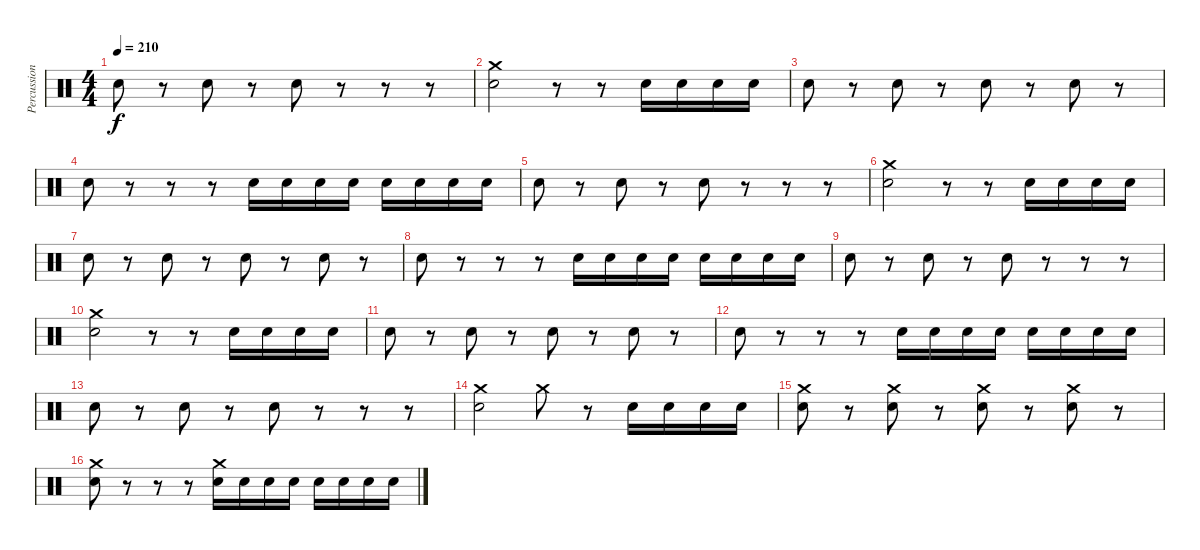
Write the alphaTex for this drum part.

\track ("Percussion" "Percussion") {instrument percussion}
\staff {score}
\articulation defaults
\ts (4 4)
\tempo 210
\clef neutral
\ks c "Electric Snare (hit)".8{dy f}
r.8 "Electric Snare (hit)".8 r.8 "Electric Snare (hit)".8 r.8 r.8 r.8 |
("Crash medium (hit)" "Electric Snare (hit)").2 r.8 r.8 "Electric Snare (hit)".16 "Electric Snare (hit)".16 "Electric Snare (hit)".16 "Electric Snare (hit)".16 |
"Electric Snare (hit)".8 r.8 "Electric Snare (hit)".8 r.8 "Electric Snare (hit)".8 r.8 "Electric Snare (hit)".8 r.8 |
"Electric Snare (hit)".8 r.8 r.8 r.8 "Electric Snare (hit)".16 "Electric Snare (hit)".16 "Electric Snare (hit)".16 "Electric Snare (hit)".16 "Electric Snare (hit)".16 "Electric Snare (hit)".16 "Electric Snare (hit)".16 "Electric Snare (hit)".16 |
"Electric Snare (hit)".8 r.8 "Electric Snare (hit)".8 r.8 "Electric Snare (hit)".8 r.8 r.8 r.8 |
("Crash medium (hit)" "Electric Snare (hit)").2 r.8 r.8 "Electric Snare (hit)".16 "Electric Snare (hit)".16 "Electric Snare (hit)".16 "Electric Snare (hit)".16 |
"Electric Snare (hit)".8 r.8 "Electric Snare (hit)".8 r.8 "Electric Snare (hit)".8 r.8 "Electric Snare (hit)".8 r.8 |
"Electric Snare (hit)".8 r.8 r.8 r.8 "Electric Snare (hit)".16 "Electric Snare (hit)".16 "Electric Snare (hit)".16 "Electric Snare (hit)".16 "Electric Snare (hit)".16 "Electric Snare (hit)".16 "Electric Snare (hit)".16 "Electric Snare (hit)".16 |
"Electric Snare (hit)".8 r.8 "Electric Snare (hit)".8 r.8 "Electric Snare (hit)".8 r.8 r.8 r.8 |
("Crash medium (hit)" "Electric Snare (hit)").2 r.8 r.8 "Electric Snare (hit)".16 "Electric Snare (hit)".16 "Electric Snare (hit)".16 "Electric Snare (hit)".16 |
"Electric Snare (hit)".8 r.8 "Electric Snare (hit)".8 r.8 "Electric Snare (hit)".8 r.8 "Electric Snare (hit)".8 r.8 |
"Electric Snare (hit)".8 r.8 r.8 r.8 "Electric Snare (hit)".16 "Electric Snare (hit)".16 "Electric Snare (hit)".16 "Electric Snare (hit)".16 "Electric Snare (hit)".16 "Electric Snare (hit)".16 "Electric Snare (hit)".16 "Electric Snare (hit)".16 |
"Electric Snare (hit)".8 r.8 "Electric Snare (hit)".8 r.8 "Electric Snare (hit)".8 r.8 r.8 r.8 |
("Crash medium (hit)" "Electric Snare (hit)").2 "Crash medium (hit)".8 r.8 "Electric Snare (hit)".16 "Electric Snare (hit)".16 "Electric Snare (hit)".16 "Electric Snare (hit)".16 |
("Crash medium (hit)" "Electric Snare (hit)").8 r.8 ("Crash medium (hit)" "Electric Snare (hit)").8 r.8 ("Crash medium (hit)" "Electric Snare (hit)").8 r.8 ("Crash medium (hit)" "Electric Snare (hit)").8 r.8 |
("Crash medium (hit)" "Electric Snare (hit)").8 r.8 r.8 r.8 ("Crash medium (hit)" "Electric Snare (hit)").16 "Electric Snare (hit)".16 "Electric Snare (hit)".16 "Electric Snare (hit)".16 "Electric Snare (hit)".16 "Electric Snare (hit)".16 "Electric Snare (hit)".16 "Electric Snare (hit)".16
